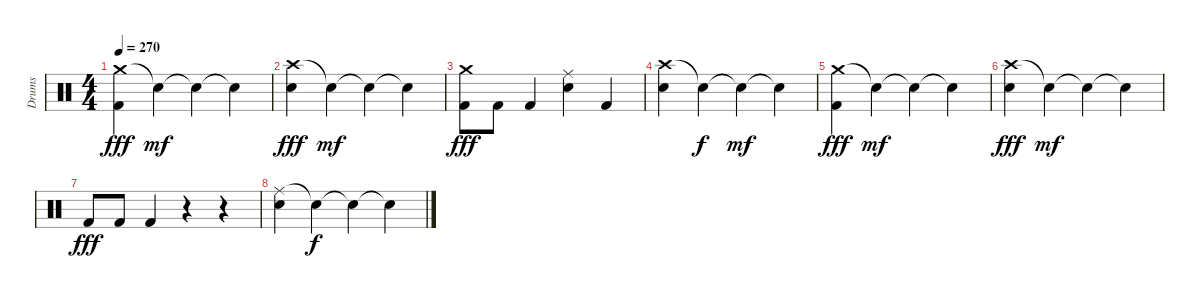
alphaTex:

\track ("Drums" "Drums") {instrument percussion}
\staff {score}
\articulation defaults
\ts (4 4)
\tempo 270
\clef neutral
\ks c
("Crash medium (hit)" "Kick (hit) 2").4{dy fff} "Snare (hit)"{t}.4{dy mf} "Snare (hit)"{t}.4 "Snare (hit)"{t}.4 |
("Crash high (hit)" "Snare (hit) 2").4{dy fff} "Snare (hit)"{t}.4{dy mf} "Snare (hit)"{t}.4 "Snare (hit)"{t}.4 |
("Crash medium (hit)" "Kick (hit) 2").8{dy fff} "Kick (hit) 2".8 "Kick (hit) 2".4 ("Ride (middle)" "Snare (hit) 2").4 "Kick (hit) 2".4 |
("Crash high (hit)" "Snare (hit) 2").4 "Snare (hit)"{t}.4{dy f} "Snare (hit)"{t}.4{dy mf} "Snare (hit)"{t}.4 |
("Crash medium (hit)" "Kick (hit) 2").4{dy fff} "Snare (hit)"{t}.4{dy mf} "Snare (hit)"{t}.4 "Snare (hit)"{t}.4 |
("Crash high (hit)" "Snare (hit) 2").4{dy fff} "Snare (hit)"{t}.4{dy mf} "Snare (hit)"{t}.4 "Snare (hit)"{t}.4 |
"Kick (hit) 2".8{dy fff} "Kick (hit) 2".8 "Kick (hit) 2".4 r.4 r.4 |
("Ride (middle)" "Snare (hit) 2").4 "Snare (hit)"{t}.4{dy f} "Snare (hit)"{t}.4 "Snare (hit)"{t}.4
